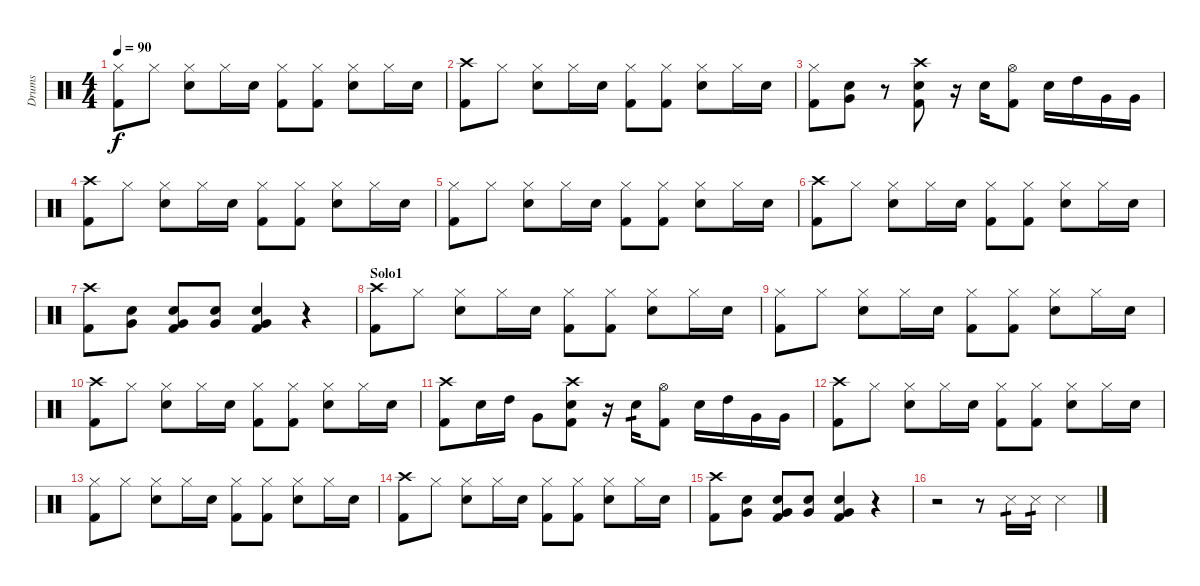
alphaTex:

\track ("Drums" "Drums") {instrument percussion}
\staff {score}
\articulation defaults
\ts (4 4)
\tempo 90
\clef neutral
\ks c
("Hi-Hat (closed)" "Kick (hit) 2").8{dy f} "Hi-Hat (closed)".8 ("Hi-Hat (closed)" "Snare (hit) 2").8 "Hi-Hat (closed)".16 "Snare (hit) 2".16 ("Hi-Hat (closed)" "Kick (hit) 2").8 ("Hi-Hat (closed)" "Kick (hit) 2").8 ("Hi-Hat (closed)" "Snare (hit) 2").8 "Hi-Hat (closed)".16 "Snare (hit) 2".16 |
("Crash high (hit)" "Kick (hit) 2").8 "Hi-Hat (closed)".8 ("Hi-Hat (closed)" "Snare (hit) 2").8 "Hi-Hat (closed)".16 "Snare (hit) 2".16 ("Hi-Hat (closed)" "Kick (hit) 2").8 ("Hi-Hat (closed)" "Kick (hit) 2").8 ("Hi-Hat (closed)" "Snare (hit) 2").8 "Hi-Hat (closed)".16 "Snare (hit) 2".16 |
("Hi-Hat (closed)" "Kick (hit) 2").8 ("Snare (hit) 2" "Very Low Tom (hit)").8 r.8 ("Crash high (hit)" "Snare (hit) 2" "Kick (hit) 2").8 r.16 "Snare (hit) 2".16 ("Hi-Hat (open)" "Kick (hit) 2").8 "Snare (hit) 2".16 "High Tom (hit)".16 "Very Low Tom (hit)".16 "Very Low Tom (hit)".16 |
("Crash high (hit)" "Kick (hit) 2").8 "Hi-Hat (closed)".8 ("Hi-Hat (closed)" "Snare (hit) 2").8 "Hi-Hat (closed)".16 "Snare (hit) 2".16 ("Hi-Hat (closed)" "Kick (hit) 2").8 ("Hi-Hat (closed)" "Kick (hit) 2").8 ("Hi-Hat (closed)" "Snare (hit) 2").8 "Hi-Hat (closed)".16 "Snare (hit) 2".16 |
("Hi-Hat (closed)" "Kick (hit) 2").8 "Hi-Hat (closed)".8 ("Hi-Hat (closed)" "Snare (hit) 2").8 "Hi-Hat (closed)".16 "Snare (hit) 2".16 ("Hi-Hat (closed)" "Kick (hit) 2").8 ("Hi-Hat (closed)" "Kick (hit) 2").8 ("Hi-Hat (closed)" "Snare (hit) 2").8 "Hi-Hat (closed)".16 "Snare (hit) 2".16 |
("Crash high (hit)" "Kick (hit) 2").8 "Hi-Hat (closed)".8 ("Hi-Hat (closed)" "Snare (hit) 2").8 "Hi-Hat (closed)".16 "Snare (hit) 2".16 ("Hi-Hat (closed)" "Kick (hit) 2").8 ("Hi-Hat (closed)" "Kick (hit) 2").8 ("Hi-Hat (closed)" "Snare (hit) 2").8 "Hi-Hat (closed)".16 "Snare (hit) 2".16 |
("Crash high (hit)" "Kick (hit) 2").8 ("Snare (hit) 2" "Very Low Tom (hit)").8 ("Snare (hit) 2" "Very Low Tom (hit)" "Kick (hit) 2").8 ("Snare (hit) 2" "Very Low Tom (hit)").8 ("Snare (hit) 2" "Very Low Tom (hit)" "Kick (hit) 2").4 r.4 |
\section ("" "Solo1")
("Crash high (hit)" "Kick (hit) 2").8 "Hi-Hat (closed)".8 ("Hi-Hat (closed)" "Snare (hit) 2").8 "Hi-Hat (closed)".16 "Snare (hit) 2".16 ("Hi-Hat (closed)" "Kick (hit) 2").8 ("Hi-Hat (closed)" "Kick (hit) 2").8 ("Hi-Hat (closed)" "Snare (hit) 2").8 "Hi-Hat (closed)".16 "Snare (hit) 2".16 |
("Hi-Hat (closed)" "Kick (hit) 2").8 "Hi-Hat (closed)".8 ("Hi-Hat (closed)" "Snare (hit) 2").8 "Hi-Hat (closed)".16 "Snare (hit) 2".16 ("Hi-Hat (closed)" "Kick (hit) 2").8 ("Hi-Hat (closed)" "Kick (hit) 2").8 ("Hi-Hat (closed)" "Snare (hit) 2").8 "Hi-Hat (closed)".16 "Snare (hit) 2".16 |
("Crash high (hit)" "Kick (hit) 2").8 "Hi-Hat (closed)".8 ("Hi-Hat (closed)" "Snare (hit) 2").8 "Hi-Hat (closed)".16 "Snare (hit) 2".16 ("Hi-Hat (closed)" "Kick (hit) 2").8 ("Hi-Hat (closed)" "Kick (hit) 2").8 ("Hi-Hat (closed)" "Snare (hit) 2").8 "Hi-Hat (closed)".16 "Snare (hit) 2".16 |
("Crash high (hit)" "Kick (hit) 2").8 "Snare (hit) 2".16 "High Tom (hit)".16 "Very Low Tom (hit)".8 ("Crash high (hit)" "Snare (hit) 2" "Kick (hit) 2").8 r.16 "Snare (hit) 2".16{tp 1} ("Hi-Hat (open)" "Kick (hit) 2").8 "Snare (hit) 2".16 "High Tom (hit)".16 "Very Low Tom (hit)".16 "Very Low Tom (hit)".16 |
("Crash high (hit)" "Kick (hit) 2").8 "Hi-Hat (closed)".8 ("Hi-Hat (closed)" "Snare (hit) 2").8 "Hi-Hat (closed)".16 "Snare (hit) 2".16 ("Hi-Hat (closed)" "Kick (hit) 2").8 ("Hi-Hat (closed)" "Kick (hit) 2").8 ("Hi-Hat (closed)" "Snare (hit) 2").8 "Hi-Hat (closed)".16 "Snare (hit) 2".16 |
("Hi-Hat (closed)" "Kick (hit) 2").8 "Hi-Hat (closed)".8 ("Hi-Hat (closed)" "Snare (hit) 2").8 "Hi-Hat (closed)".16 "Snare (hit) 2".16 ("Hi-Hat (closed)" "Kick (hit) 2").8 ("Hi-Hat (closed)" "Kick (hit) 2").8 ("Hi-Hat (closed)" "Snare (hit) 2").8 "Hi-Hat (closed)".16 "Snare (hit) 2".16 |
("Crash high (hit)" "Kick (hit) 2").8 "Hi-Hat (closed)".8 ("Hi-Hat (closed)" "Snare (hit) 2").8 "Hi-Hat (closed)".16 "Snare (hit) 2".16 ("Hi-Hat (closed)" "Kick (hit) 2").8 ("Hi-Hat (closed)" "Kick (hit) 2").8 ("Hi-Hat (closed)" "Snare (hit) 2").8 "Hi-Hat (closed)".16 "Snare (hit) 2".16 |
("Crash high (hit)" "Kick (hit) 2").8 ("Snare (hit) 2" "Very Low Tom (hit)").8 ("Snare (hit) 2" "Very Low Tom (hit)" "Kick (hit) 2").8 ("Snare (hit) 2" "Very Low Tom (hit)").8 ("Snare (hit) 2" "Very Low Tom (hit)" "Kick (hit) 2").4 r.4 |
r.2 r.8 "Snare (side stick) 3".16{tp 1} "Snare (side stick) 3".16{tp 1} "Snare (side stick) 3".4
